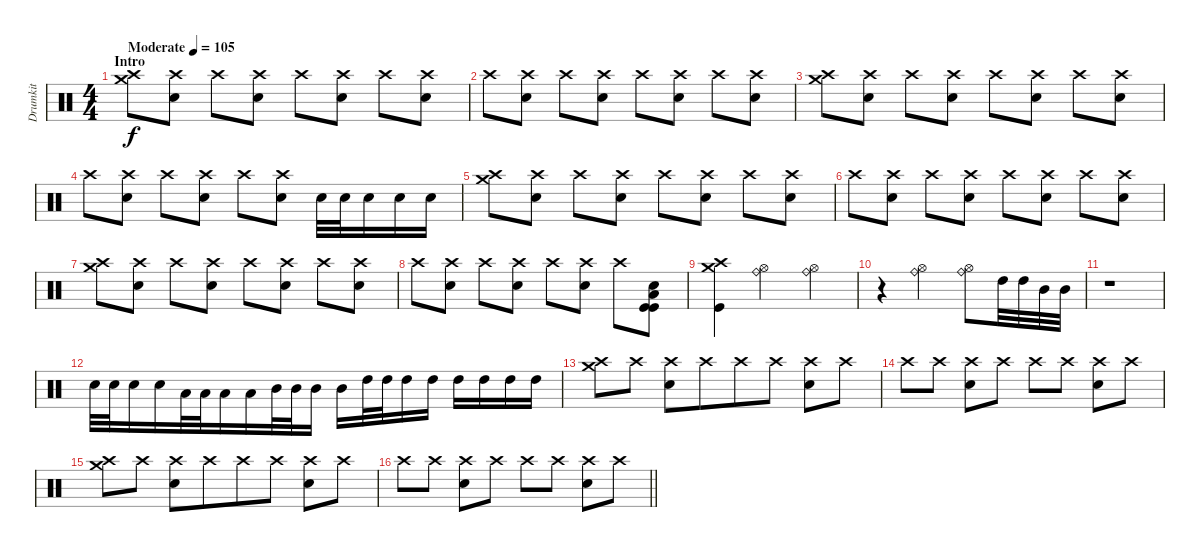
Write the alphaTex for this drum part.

\track ("Drumkit" "Drumkit") {instrument percussion}
\staff {score}
\articulation defaults
\ts (4 4)
\section ("" "Intro")
\tempo (105 "Moderate")
\clef neutral
\ks c
("Crash medium (hit)" "Crash high (hit)").8{dy f} ("Crash high (hit)" "Electric Snare (hit)").8 "Crash high (hit)".8 ("Crash high (hit)" "Electric Snare (hit)").8 "Crash high (hit)".8 ("Crash high (hit)" "Electric Snare (hit)").8 "Crash high (hit)".8 ("Crash high (hit)" "Electric Snare (hit)").8 |
"Crash high (hit)".8 ("Crash high (hit)" "Electric Snare (hit)").8 "Crash high (hit)".8 ("Crash high (hit)" "Electric Snare (hit)").8 "Crash high (hit)".8 ("Crash high (hit)" "Electric Snare (hit)").8 "Crash high (hit)".8 ("Crash high (hit)" "Electric Snare (hit)").8 |
("Crash medium (hit)" "Crash high (hit)").8 ("Crash high (hit)" "Electric Snare (hit)").8 "Crash high (hit)".8 ("Crash high (hit)" "Electric Snare (hit)").8 "Crash high (hit)".8 ("Crash high (hit)" "Electric Snare (hit)").8 "Crash high (hit)".8 ("Crash high (hit)" "Electric Snare (hit)").8 |
"Crash high (hit)".8 ("Crash high (hit)" "Electric Snare (hit)").8 "Crash high (hit)".8 ("Crash high (hit)" "Electric Snare (hit)").8 "Crash high (hit)".8 ("Crash high (hit)" "Electric Snare (hit)").8 "Electric Snare (hit)".32 "Electric Snare (hit)".32{beam merge} "Electric Snare (hit)".16{beam merge} "Electric Snare (hit)".16 "Electric Snare (hit)".16 |
("Crash medium (hit)" "Crash high (hit)").8 ("Crash high (hit)" "Electric Snare (hit)").8 "Crash high (hit)".8 ("Crash high (hit)" "Electric Snare (hit)").8 "Crash high (hit)".8 ("Crash high (hit)" "Electric Snare (hit)").8 "Crash high (hit)".8 ("Crash high (hit)" "Electric Snare (hit)").8 |
"Crash high (hit)".8 ("Crash high (hit)" "Electric Snare (hit)").8 "Crash high (hit)".8 ("Crash high (hit)" "Electric Snare (hit)").8 "Crash high (hit)".8 ("Crash high (hit)" "Electric Snare (hit)").8 "Crash high (hit)".8 ("Crash high (hit)" "Electric Snare (hit)").8 |
("Crash medium (hit)" "Crash high (hit)").8 ("Crash high (hit)" "Electric Snare (hit)").8 "Crash high (hit)".8 ("Crash high (hit)" "Electric Snare (hit)").8 "Crash high (hit)".8 ("Crash high (hit)" "Electric Snare (hit)").8 "Crash high (hit)".8 ("Crash high (hit)" "Electric Snare (hit)").8 |
"Crash high (hit)".8 ("Crash high (hit)" "Electric Snare (hit)").8 "Crash high (hit)".8 ("Crash high (hit)" "Electric Snare (hit)").8 "Crash high (hit)".8 ("Crash high (hit)" "Electric Snare (hit)").8 "Crash high (hit)".8 ("Electric Snare (hit)" "Low Floor Tom (hit)" "Kick (hit)" "Kick (hit)").8 |
("Crash medium (hit)" "Crash high (hit)" "Kick (hit)").4 ("Ride (bell)" "Hi-Hat (open)").2 ("Ride (bell)" "Hi-Hat (open)").4 |
r.4 ("Ride (bell)" "Hi-Hat (open)").2 ("Ride (bell)" "Hi-Hat (open)").8{beam merge} "High Tom (hit)".32 "High Tom (hit)".32 "Mid Tom (hit)".32{beam merge} "Mid Tom (hit)".32 |
r.1 |
"Electric Snare (hit)".32 "Electric Snare (hit)".32 "Electric Snare (hit)".16{beam merge} "Electric Snare (hit)".16 "Low Floor Tom (hit)".32{beam merge} "Low Floor Tom (hit)".32{beam merge} "Low Floor Tom (hit)".16 "Low Floor Tom (hit)".16{beam merge} "Mid Tom (hit)".32{beam merge} "Mid Tom (hit)".32 "Mid Tom (hit)".16 "Mid Tom (hit)".16{beam merge} "High Tom (hit)".32 "High Tom (hit)".32 "High Tom (hit)".16 "High Tom (hit)".16 "High Tom (hit)".16{beam merge} "High Tom (hit)".16 "High Tom (hit)".16{beam merge} "High Tom (hit)".16 |
("Crash medium (hit)" "Crash high (hit)").8{beam merge} "Crash high (hit)".8 ("Crash high (hit)" "Electric Snare (hit)").8{beam merge} "Crash high (hit)".8{beam merge} "Crash high (hit)".8{beam merge} "Crash high (hit)".8 ("Crash high (hit)" "Electric Snare (hit)").8{beam merge} "Crash high (hit)".8 |
"Crash high (hit)".8 "Crash high (hit)".8 ("Crash high (hit)" "Electric Snare (hit)").8 "Crash high (hit)".8 "Crash high (hit)".8{beam merge} "Crash high (hit)".8 ("Crash high (hit)" "Electric Snare (hit)").8 "Crash high (hit)".8 |
("Crash medium (hit)" "Crash high (hit)").8{beam merge} "Crash high (hit)".8 ("Crash high (hit)" "Electric Snare (hit)").8{beam merge} "Crash high (hit)".8{beam merge} "Crash high (hit)".8{beam merge} "Crash high (hit)".8 ("Crash high (hit)" "Electric Snare (hit)").8{beam merge} "Crash high (hit)".8 |
\barLineRight lightlight "Crash high (hit)".8 "Crash high (hit)".8
("Crash high (hit)" "Electric Snare (hit)").8 "Crash high (hit)".8 "Crash high (hit)".8{beam merge} "Crash high (hit)".8 ("Crash high (hit)" "Electric Snare (hit)").8 "Crash high (hit)".8
